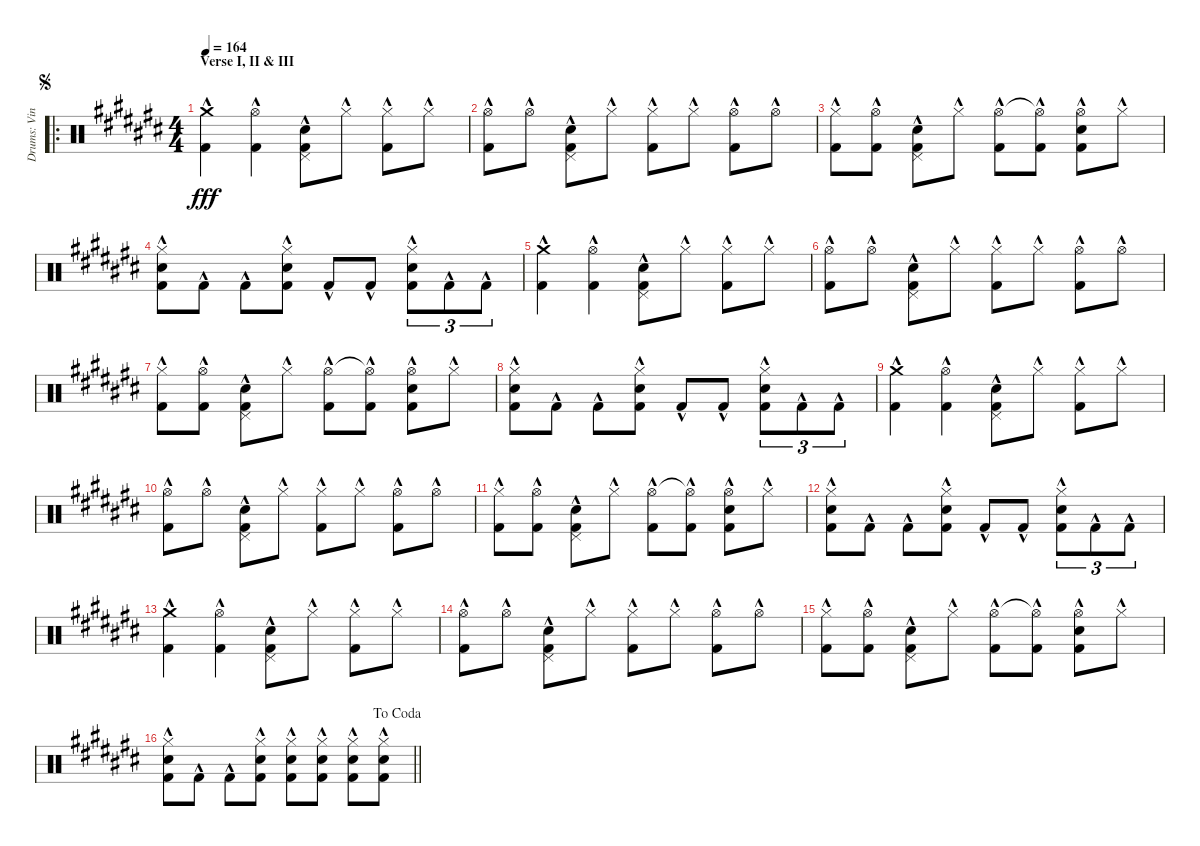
\track ("Drums: Vinny" "Drums: Vin") {instrument percussion}
\staff {score}
\articulation defaults
\ro
\ts (4 4)
\section ("" "Verse I, II & III")
\jump segno
\tempo 164
\clef neutral
\ks c#
("Crash medium (hit)"{hac} "Kick (hit) 2"{hac}).4{dy fff} ("Hi-Hat (open)"{hac} "Kick (hit) 2"{hac}).4 ("Pedal Hi-Hat (hit)"{hac} "Snare (hit) 2"{hac} "Kick (hit) 2"{hac}).8 "Hi-Hat (closed)"{hac}.8 ("Hi-Hat (closed)"{hac} "Kick (hit) 2"{hac}).8 "Hi-Hat (closed)"{hac}.8 |
("Hi-Hat (open)"{hac} "Kick (hit) 2"{hac}).8 "Hi-Hat (open)"{hac}.8 ("Pedal Hi-Hat (hit)"{hac} "Snare (hit) 2"{hac} "Kick (hit) 2"{hac}).8 "Hi-Hat (closed)"{hac}.8 ("Hi-Hat (closed)"{hac} "Kick (hit) 2"{hac}).8 "Hi-Hat (closed)"{hac}.8 ("Hi-Hat (open)"{hac} "Kick (hit) 2"{hac}).8 "Hi-Hat (open)"{hac}.8 |
("Hi-Hat (closed)"{hac} "Kick (hit) 2"{hac}).8 ("Hi-Hat (open)"{hac} "Kick (hit) 2"{hac}).8 ("Pedal Hi-Hat (hit)"{hac} "Snare (hit) 2"{hac} "Kick (hit) 2"{hac}).8 "Hi-Hat (closed)"{hac}.8 ("Hi-Hat (open)"{hac} "Kick (hit) 2"{hac}).8 ("Hi-Hat (open)"{t} "Kick (hit) 2"{hac}).8 ("Hi-Hat (open)"{hac} "Snare (hit) 2"{hac} "Kick (hit) 2"{hac}).8 "Hi-Hat (closed)"{hac}.8 |
("Hi-Hat (closed)"{hac} "Snare (hit) 2"{hac} "Kick (hit) 2"{hac}).8 "Kick (hit) 2"{hac}.8 "Kick (hit) 2"{hac}.8 ("Hi-Hat (closed)"{hac} "Snare (hit) 2"{hac} "Kick (hit) 2"{hac}).8 "Kick (hit) 2"{hac}.8 "Kick (hit) 2"{hac}.8 ("Hi-Hat (closed)"{hac} "Snare (hit) 2"{hac} "Kick (hit) 2"{hac}).8{tu (3 2)} "Kick (hit) 2"{hac}.8{tu (3 2)} "Kick (hit) 2"{hac}.8{tu (3 2)} |
("Crash medium (hit)"{hac} "Kick (hit) 2"{hac}).4 ("Hi-Hat (open)"{hac} "Kick (hit) 2"{hac}).4 ("Pedal Hi-Hat (hit)"{hac} "Snare (hit) 2"{hac} "Kick (hit) 2"{hac}).8 "Hi-Hat (closed)"{hac}.8 ("Hi-Hat (closed)"{hac} "Kick (hit) 2"{hac}).8 "Hi-Hat (closed)"{hac}.8 |
("Hi-Hat (open)"{hac} "Kick (hit) 2"{hac}).8 "Hi-Hat (open)"{hac}.8 ("Pedal Hi-Hat (hit)"{hac} "Snare (hit) 2"{hac} "Kick (hit) 2"{hac}).8 "Hi-Hat (closed)"{hac}.8 ("Hi-Hat (closed)"{hac} "Kick (hit) 2"{hac}).8 "Hi-Hat (closed)"{hac}.8 ("Hi-Hat (open)"{hac} "Kick (hit) 2"{hac}).8 "Hi-Hat (open)"{hac}.8 |
("Hi-Hat (closed)"{hac} "Kick (hit) 2"{hac}).8 ("Hi-Hat (open)"{hac} "Kick (hit) 2"{hac}).8 ("Pedal Hi-Hat (hit)"{hac} "Snare (hit) 2"{hac} "Kick (hit) 2"{hac}).8 "Hi-Hat (closed)"{hac}.8 ("Hi-Hat (open)"{hac} "Kick (hit) 2"{hac}).8 ("Hi-Hat (open)"{t} "Kick (hit) 2"{hac}).8 ("Hi-Hat (open)"{hac} "Snare (hit) 2"{hac} "Kick (hit) 2"{hac}).8 "Hi-Hat (closed)"{hac}.8 |
("Hi-Hat (closed)"{hac} "Snare (hit) 2"{hac} "Kick (hit) 2"{hac}).8 "Kick (hit) 2"{hac}.8 "Kick (hit) 2"{hac}.8 ("Hi-Hat (closed)"{hac} "Snare (hit) 2"{hac} "Kick (hit) 2"{hac}).8 "Kick (hit) 2"{hac}.8 "Kick (hit) 2"{hac}.8 ("Hi-Hat (closed)"{hac} "Snare (hit) 2"{hac} "Kick (hit) 2"{hac}).8{tu (3 2)} "Kick (hit) 2"{hac}.8{tu (3 2)} "Kick (hit) 2"{hac}.8{tu (3 2)} |
("Crash medium (hit)"{hac} "Kick (hit) 2"{hac}).4 ("Hi-Hat (open)"{hac} "Kick (hit) 2"{hac}).4 ("Pedal Hi-Hat (hit)"{hac} "Snare (hit) 2"{hac} "Kick (hit) 2"{hac}).8 "Hi-Hat (closed)"{hac}.8 ("Hi-Hat (closed)"{hac} "Kick (hit) 2"{hac}).8 "Hi-Hat (closed)"{hac}.8 |
("Hi-Hat (open)"{hac} "Kick (hit) 2"{hac}).8 "Hi-Hat (open)"{hac}.8 ("Pedal Hi-Hat (hit)"{hac} "Snare (hit) 2"{hac} "Kick (hit) 2"{hac}).8 "Hi-Hat (closed)"{hac}.8 ("Hi-Hat (closed)"{hac} "Kick (hit) 2"{hac}).8 "Hi-Hat (closed)"{hac}.8 ("Hi-Hat (open)"{hac} "Kick (hit) 2"{hac}).8 "Hi-Hat (open)"{hac}.8 |
("Hi-Hat (closed)"{hac} "Kick (hit) 2"{hac}).8 ("Hi-Hat (open)"{hac} "Kick (hit) 2"{hac}).8 ("Pedal Hi-Hat (hit)"{hac} "Snare (hit) 2"{hac} "Kick (hit) 2"{hac}).8 "Hi-Hat (closed)"{hac}.8 ("Hi-Hat (open)"{hac} "Kick (hit) 2"{hac}).8 ("Hi-Hat (open)"{t} "Kick (hit) 2"{hac}).8 ("Hi-Hat (open)"{hac} "Snare (hit) 2"{hac} "Kick (hit) 2"{hac}).8 "Hi-Hat (closed)"{hac}.8 |
("Hi-Hat (closed)"{hac} "Snare (hit) 2"{hac} "Kick (hit) 2"{hac}).8 "Kick (hit) 2"{hac}.8 "Kick (hit) 2"{hac}.8 ("Hi-Hat (closed)"{hac} "Snare (hit) 2"{hac} "Kick (hit) 2"{hac}).8 "Kick (hit) 2"{hac}.8 "Kick (hit) 2"{hac}.8 ("Hi-Hat (closed)"{hac} "Snare (hit) 2"{hac} "Kick (hit) 2"{hac}).8{tu (3 2)} "Kick (hit) 2"{hac}.8{tu (3 2)} "Kick (hit) 2"{hac}.8{tu (3 2)} |
("Crash medium (hit)"{hac} "Kick (hit) 2"{hac}).4 ("Hi-Hat (open)"{hac} "Kick (hit) 2"{hac}).4 ("Pedal Hi-Hat (hit)"{hac} "Snare (hit) 2"{hac} "Kick (hit) 2"{hac}).8 "Hi-Hat (closed)"{hac}.8 ("Hi-Hat (closed)"{hac} "Kick (hit) 2"{hac}).8 "Hi-Hat (closed)"{hac}.8 |
("Hi-Hat (open)"{hac} "Kick (hit) 2"{hac}).8 "Hi-Hat (open)"{hac}.8 ("Pedal Hi-Hat (hit)"{hac} "Snare (hit) 2"{hac} "Kick (hit) 2"{hac}).8 "Hi-Hat (closed)"{hac}.8 ("Hi-Hat (closed)"{hac} "Kick (hit) 2"{hac}).8 "Hi-Hat (closed)"{hac}.8 ("Hi-Hat (open)"{hac} "Kick (hit) 2"{hac}).8 "Hi-Hat (open)"{hac}.8 |
("Hi-Hat (closed)"{hac} "Kick (hit) 2"{hac}).8 ("Hi-Hat (open)"{hac} "Kick (hit) 2"{hac}).8 ("Pedal Hi-Hat (hit)"{hac} "Snare (hit) 2"{hac} "Kick (hit) 2"{hac}).8 "Hi-Hat (closed)"{hac}.8 ("Hi-Hat (open)"{hac} "Kick (hit) 2"{hac}).8 ("Hi-Hat (open)"{t} "Kick (hit) 2"{hac}).8 ("Hi-Hat (open)"{hac} "Snare (hit) 2"{hac} "Kick (hit) 2"{hac}).8 "Hi-Hat (closed)"{hac}.8 |
\jump dacoda
\barLineRight lightlight
("Hi-Hat (closed)"{hac} "Snare (hit) 2"{hac} "Kick (hit) 2"{hac}).8 "Kick (hit) 2"{hac}.8 "Kick (hit) 2"{hac}.8 ("Hi-Hat (closed)"{hac} "Snare (hit) 2"{hac} "Kick (hit) 2"{hac}).8 ("Hi-Hat (closed)"{hac} "Snare (hit) 2"{hac} "Kick (hit) 2"{hac}).8 ("Hi-Hat (closed)"{hac} "Snare (hit) 2"{hac} "Kick (hit) 2"{hac}).8 ("Hi-Hat (closed)"{hac} "Snare (hit) 2"{hac} "Kick (hit) 2"{hac}).8 ("Hi-Hat (closed)"{hac} "Snare (hit) 2"{hac} "Kick (hit) 2"{hac}).8
